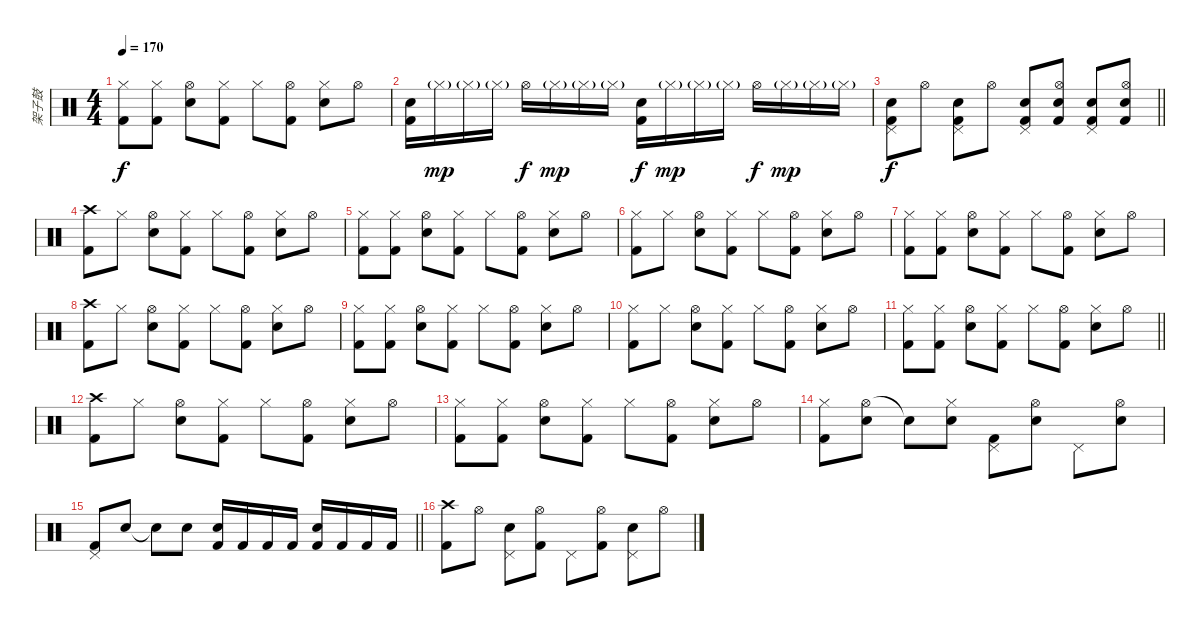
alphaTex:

\track ("架子鼓" "架子鼓") {instrument percussion}
\staff {score}
\articulation defaults
\ts (4 4)
\tempo 170
\clef neutral
\ks c
("Hi-Hat (closed)" "Kick (hit) 2").8{dy f} ("Hi-Hat (closed)" "Kick (hit) 2").8 ("Hi-Hat (open)" "Snare (hit) 2").8 ("Hi-Hat (closed)" "Kick (hit) 2").8 "Hi-Hat (closed)".8 ("Hi-Hat (open)" "Kick (hit) 2").8 ("Hi-Hat (closed)" "Snare (hit) 2").8 "Hi-Hat (open)".8 |
("Snare (hit) 2" "Kick (hit) 2").16 "Hi-Hat (closed)"{g}.16{dy mp} "Hi-Hat (closed)"{g}.16 "Hi-Hat (closed)"{g}.16 "Hi-Hat (open)".16{dy f} "Hi-Hat (closed)"{g}.16{dy mp} "Hi-Hat (closed)"{g}.16 "Hi-Hat (closed)"{g}.16 ("Snare (hit) 2" "Kick (hit) 2").16{dy f} "Hi-Hat (closed)"{g}.16{dy mp} "Hi-Hat (closed)"{g}.16 "Hi-Hat (closed)"{g}.16 "Hi-Hat (open)".16{dy f} "Hi-Hat (closed)"{g}.16{dy mp} "Hi-Hat (closed)"{g}.16 "Hi-Hat (closed)"{g}.16 |
\barLineRight lightlight
("Snare (hit) 2" "Pedal Hi-Hat (hit)" "Kick (hit) 2").8{dy f} "Hi-Hat (open)".8 ("Snare (hit) 2" "Pedal Hi-Hat (hit)" "Kick (hit) 2").8 "Hi-Hat (open)".8 ("Snare (hit) 2" "Pedal Hi-Hat (hit)" "Kick (hit) 2").8 ("Hi-Hat (open)" "Snare (hit) 2" "Kick (hit) 2").8 ("Snare (hit) 2" "Pedal Hi-Hat (hit)" "Kick (hit) 2").8 ("Hi-Hat (open)" "Snare (hit) 2" "Kick (hit) 2").8 |
("Crash high (hit)" "Kick (hit) 2").8 "Hi-Hat (closed)".8 ("Hi-Hat (open)" "Snare (hit) 2").8 ("Hi-Hat (closed)" "Kick (hit) 2").8 "Hi-Hat (closed)".8 ("Hi-Hat (open)" "Kick (hit) 2").8 ("Hi-Hat (closed)" "Snare (hit) 2").8 "Hi-Hat (open)".8 |
("Hi-Hat (closed)" "Kick (hit) 2").8 ("Hi-Hat (closed)" "Kick (hit) 2").8 ("Hi-Hat (open)" "Snare (hit) 2").8 ("Hi-Hat (closed)" "Kick (hit) 2").8 "Hi-Hat (closed)".8 ("Hi-Hat (open)" "Kick (hit) 2").8 ("Hi-Hat (closed)" "Snare (hit) 2").8 "Hi-Hat (open)".8 |
("Hi-Hat (closed)" "Kick (hit) 2").8 "Hi-Hat (closed)".8 ("Hi-Hat (open)" "Snare (hit) 2").8 ("Hi-Hat (closed)" "Kick (hit) 2").8 "Hi-Hat (closed)".8 ("Hi-Hat (open)" "Kick (hit) 2").8 ("Hi-Hat (closed)" "Snare (hit) 2").8 "Hi-Hat (open)".8 |
("Hi-Hat (closed)" "Kick (hit) 2").8 ("Hi-Hat (closed)" "Kick (hit) 2").8 ("Hi-Hat (open)" "Snare (hit) 2").8 ("Hi-Hat (closed)" "Kick (hit) 2").8 "Hi-Hat (closed)".8 ("Hi-Hat (open)" "Kick (hit) 2").8 ("Hi-Hat (closed)" "Snare (hit) 2").8 "Hi-Hat (open)".8 |
("Crash high (hit)" "Kick (hit) 2").8 "Hi-Hat (closed)".8 ("Hi-Hat (open)" "Snare (hit) 2").8 ("Hi-Hat (closed)" "Kick (hit) 2").8 "Hi-Hat (closed)".8 ("Hi-Hat (open)" "Kick (hit) 2").8 ("Hi-Hat (closed)" "Snare (hit) 2").8 "Hi-Hat (open)".8 |
("Hi-Hat (closed)" "Kick (hit) 2").8 ("Hi-Hat (closed)" "Kick (hit) 2").8 ("Hi-Hat (open)" "Snare (hit) 2").8 ("Hi-Hat (closed)" "Kick (hit) 2").8 "Hi-Hat (closed)".8 ("Hi-Hat (open)" "Kick (hit) 2").8 ("Hi-Hat (closed)" "Snare (hit) 2").8 "Hi-Hat (open)".8 |
("Hi-Hat (closed)" "Kick (hit) 2").8 "Hi-Hat (closed)".8 ("Hi-Hat (open)" "Snare (hit) 2").8 ("Hi-Hat (closed)" "Kick (hit) 2").8 "Hi-Hat (closed)".8 ("Hi-Hat (open)" "Kick (hit) 2").8 ("Hi-Hat (closed)" "Snare (hit) 2").8 "Hi-Hat (open)".8 |
\barLineRight lightlight
("Hi-Hat (closed)" "Kick (hit) 2").8 ("Hi-Hat (closed)" "Kick (hit) 2").8 ("Hi-Hat (open)" "Snare (hit) 2").8 ("Hi-Hat (closed)" "Kick (hit) 2").8 "Hi-Hat (closed)".8 ("Hi-Hat (open)" "Kick (hit) 2").8 ("Hi-Hat (closed)" "Snare (hit) 2").8 "Hi-Hat (open)".8 |
("Crash high (hit)" "Kick (hit) 2").8 "Hi-Hat (closed)".8 ("Hi-Hat (open)" "Snare (hit) 2").8 ("Hi-Hat (closed)" "Kick (hit) 2").8 "Hi-Hat (closed)".8 ("Hi-Hat (open)" "Kick (hit) 2").8 ("Hi-Hat (closed)" "Snare (hit) 2").8 "Hi-Hat (open)".8 |
("Hi-Hat (closed)" "Kick (hit) 2").8 ("Hi-Hat (closed)" "Kick (hit) 2").8 ("Hi-Hat (open)" "Snare (hit) 2").8 ("Hi-Hat (closed)" "Kick (hit) 2").8 "Hi-Hat (closed)".8 ("Hi-Hat (open)" "Kick (hit) 2").8 ("Hi-Hat (closed)" "Snare (hit) 2").8 "Hi-Hat (open)".8 |
("Hi-Hat (closed)" "Kick (hit) 2").8 ("Hi-Hat (open)" "Snare (hit) 2").8 "Snare (hit)"{t}.8 ("Hi-Hat (closed)" "Snare (hit) 2").8 ("Pedal Hi-Hat (hit)" "Kick (hit) 2").8 ("Hi-Hat (open)" "Snare (hit) 2").8 "Pedal Hi-Hat (hit)".8 ("Hi-Hat (open)" "Snare (hit) 2").8 |
\barLineRight lightlight
("Pedal Hi-Hat (hit)" "Kick (hit) 2").8 "Snare (hit) 2".8 "Snare (hit)"{t}.8 "Snare (hit) 2".8 ("Snare (hit) 2" "Kick (hit) 2").16 "Kick (hit) 2".16 "Kick (hit) 2".16 "Kick (hit) 2".16 ("Snare (hit) 2" "Kick (hit) 2").16 "Kick (hit) 2".16 "Kick (hit) 2".16 "Kick (hit) 2".16 |
("Crash high (hit)" "Kick (hit) 2").8 "Hi-Hat (open)".8 ("Snare (hit) 2" "Pedal Hi-Hat (hit)").8 ("Hi-Hat (open)" "Kick (hit) 2").8 "Pedal Hi-Hat (hit)".8 ("Hi-Hat (open)" "Kick (hit) 2").8 ("Snare (hit) 2" "Pedal Hi-Hat (hit)").8 "Hi-Hat (open)".8
